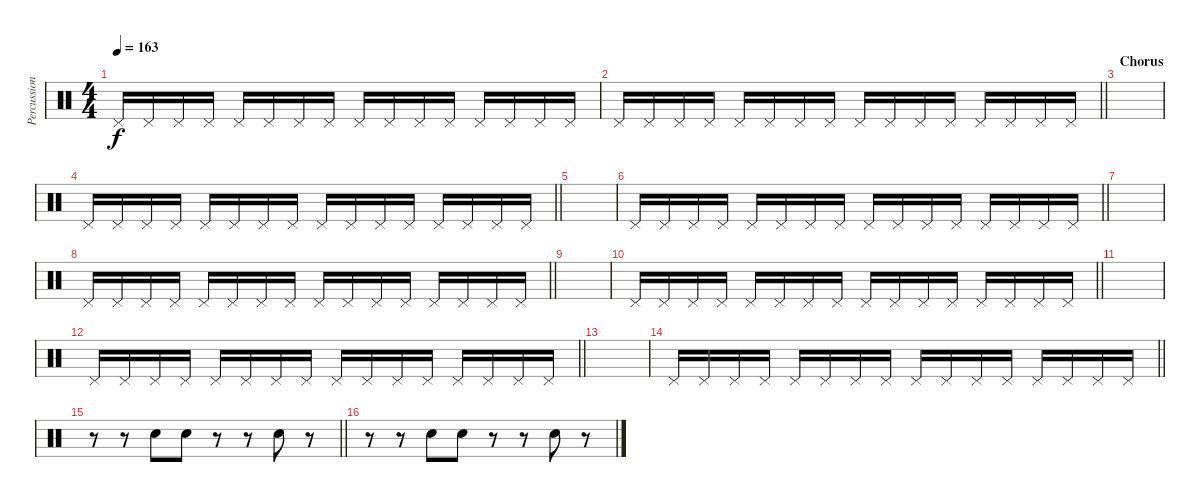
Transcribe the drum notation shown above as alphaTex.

\track ("Percussion" "Percussion") {instrument percussion}
\staff {score}
\articulation defaults
\ts (4 4)
\tempo 163
\clef neutral
\ks c "Pedal Hi-Hat (hit)".16{dy f} "Pedal Hi-Hat (hit)".16 "Pedal Hi-Hat (hit)".16 "Pedal Hi-Hat (hit)".16 "Pedal Hi-Hat (hit)".16 "Pedal Hi-Hat (hit)".16 "Pedal Hi-Hat (hit)".16 "Pedal Hi-Hat (hit)".16 "Pedal Hi-Hat (hit)".16 "Pedal Hi-Hat (hit)".16 "Pedal Hi-Hat (hit)".16 "Pedal Hi-Hat (hit)".16 "Pedal Hi-Hat (hit)".16 "Pedal Hi-Hat (hit)".16 "Pedal Hi-Hat (hit)".16 "Pedal Hi-Hat (hit)".16
|
\barLineRight lightlight "Pedal Hi-Hat (hit)".16 "Pedal Hi-Hat (hit)".16 "Pedal Hi-Hat (hit)".16 "Pedal Hi-Hat (hit)".16 "Pedal Hi-Hat (hit)".16 "Pedal Hi-Hat (hit)".16 "Pedal Hi-Hat (hit)".16 "Pedal Hi-Hat (hit)".16 "Pedal Hi-Hat (hit)".16 "Pedal Hi-Hat (hit)".16 "Pedal Hi-Hat (hit)".16 "Pedal Hi-Hat (hit)".16 "Pedal Hi-Hat (hit)".16 "Pedal Hi-Hat (hit)".16 "Pedal Hi-Hat (hit)".16 "Pedal Hi-Hat (hit)".16
|
\section ("" "Chorus")
|
\barLineRight lightlight "Pedal Hi-Hat (hit)".16 "Pedal Hi-Hat (hit)".16 "Pedal Hi-Hat (hit)".16 "Pedal Hi-Hat (hit)".16 "Pedal Hi-Hat (hit)".16 "Pedal Hi-Hat (hit)".16 "Pedal Hi-Hat (hit)".16 "Pedal Hi-Hat (hit)".16 "Pedal Hi-Hat (hit)".16 "Pedal Hi-Hat (hit)".16 "Pedal Hi-Hat (hit)".16 "Pedal Hi-Hat (hit)".16 "Pedal Hi-Hat (hit)".16 "Pedal Hi-Hat (hit)".16 "Pedal Hi-Hat (hit)".16 "Pedal Hi-Hat (hit)".16
|
|
\barLineRight lightlight "Pedal Hi-Hat (hit)".16 "Pedal Hi-Hat (hit)".16 "Pedal Hi-Hat (hit)".16 "Pedal Hi-Hat (hit)".16 "Pedal Hi-Hat (hit)".16 "Pedal Hi-Hat (hit)".16 "Pedal Hi-Hat (hit)".16 "Pedal Hi-Hat (hit)".16 "Pedal Hi-Hat (hit)".16 "Pedal Hi-Hat (hit)".16 "Pedal Hi-Hat (hit)".16 "Pedal Hi-Hat (hit)".16 "Pedal Hi-Hat (hit)".16 "Pedal Hi-Hat (hit)".16 "Pedal Hi-Hat (hit)".16 "Pedal Hi-Hat (hit)".16
|
|
\barLineRight lightlight "Pedal Hi-Hat (hit)".16 "Pedal Hi-Hat (hit)".16 "Pedal Hi-Hat (hit)".16 "Pedal Hi-Hat (hit)".16 "Pedal Hi-Hat (hit)".16 "Pedal Hi-Hat (hit)".16 "Pedal Hi-Hat (hit)".16 "Pedal Hi-Hat (hit)".16 "Pedal Hi-Hat (hit)".16 "Pedal Hi-Hat (hit)".16 "Pedal Hi-Hat (hit)".16 "Pedal Hi-Hat (hit)".16 "Pedal Hi-Hat (hit)".16 "Pedal Hi-Hat (hit)".16 "Pedal Hi-Hat (hit)".16 "Pedal Hi-Hat (hit)".16
|
|
\barLineRight lightlight "Pedal Hi-Hat (hit)".16 "Pedal Hi-Hat (hit)".16 "Pedal Hi-Hat (hit)".16 "Pedal Hi-Hat (hit)".16 "Pedal Hi-Hat (hit)".16 "Pedal Hi-Hat (hit)".16 "Pedal Hi-Hat (hit)".16 "Pedal Hi-Hat (hit)".16 "Pedal Hi-Hat (hit)".16 "Pedal Hi-Hat (hit)".16 "Pedal Hi-Hat (hit)".16 "Pedal Hi-Hat (hit)".16 "Pedal Hi-Hat (hit)".16 "Pedal Hi-Hat (hit)".16 "Pedal Hi-Hat (hit)".16 "Pedal Hi-Hat (hit)".16
|
|
\barLineRight lightlight "Pedal Hi-Hat (hit)".16 "Pedal Hi-Hat (hit)".16 "Pedal Hi-Hat (hit)".16 "Pedal Hi-Hat (hit)".16 "Pedal Hi-Hat (hit)".16 "Pedal Hi-Hat (hit)".16 "Pedal Hi-Hat (hit)".16 "Pedal Hi-Hat (hit)".16 "Pedal Hi-Hat (hit)".16 "Pedal Hi-Hat (hit)".16 "Pedal Hi-Hat (hit)".16 "Pedal Hi-Hat (hit)".16 "Pedal Hi-Hat (hit)".16 "Pedal Hi-Hat (hit)".16 "Pedal Hi-Hat (hit)".16 "Pedal Hi-Hat (hit)".16
|
|
\barLineRight lightlight "Pedal Hi-Hat (hit)".16 "Pedal Hi-Hat (hit)".16 "Pedal Hi-Hat (hit)".16 "Pedal Hi-Hat (hit)".16 "Pedal Hi-Hat (hit)".16 "Pedal Hi-Hat (hit)".16 "Pedal Hi-Hat (hit)".16 "Pedal Hi-Hat (hit)".16 "Pedal Hi-Hat (hit)".16 "Pedal Hi-Hat (hit)".16 "Pedal Hi-Hat (hit)".16 "Pedal Hi-Hat (hit)".16 "Pedal Hi-Hat (hit)".16 "Pedal Hi-Hat (hit)".16 "Pedal Hi-Hat (hit)".16 "Pedal Hi-Hat (hit)".16
|
\section ("" "")
\barLineRight lightlight
r.8 r.8 "Hand Clap (hit)".8 "Hand Clap (hit)".8 r.8 r.8 "Hand Clap (hit)".8 r.8 |
r.8 r.8 "Hand Clap (hit)".8 "Hand Clap (hit)".8 r.8 r.8 "Hand Clap (hit)".8 r.8
